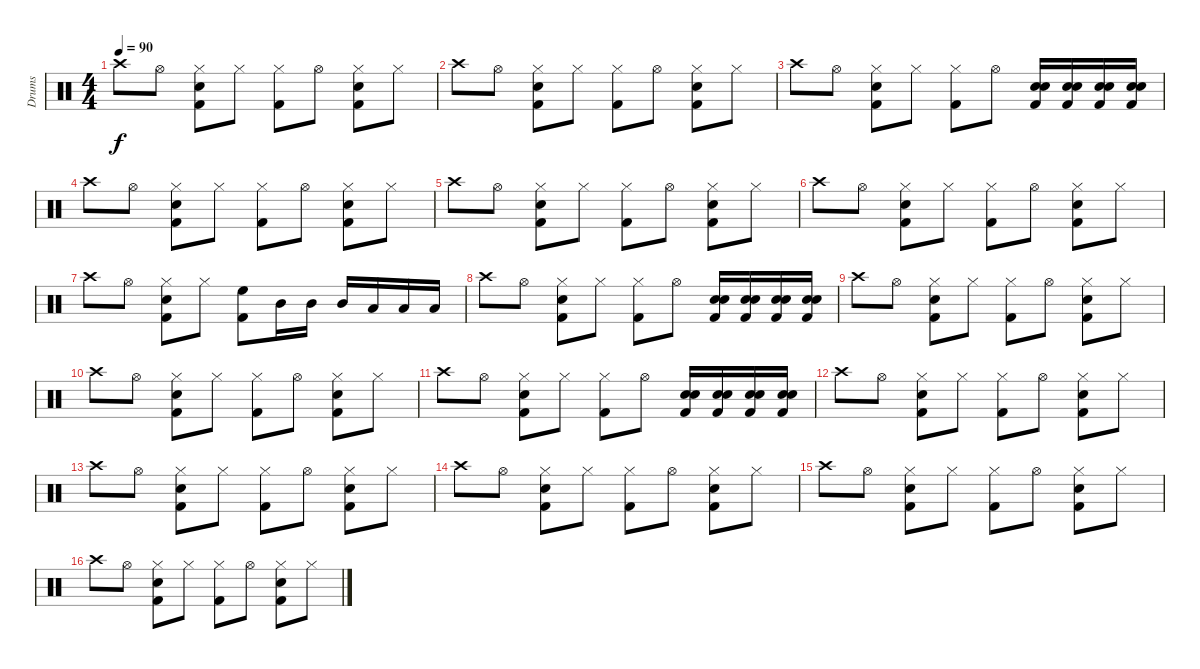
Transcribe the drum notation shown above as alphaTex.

\track ("Drums" "Drums") {instrument percussion}
\staff {score}
\articulation defaults
\ts (4 4)
\tempo 90
\clef neutral
\ks c "Crash high (hit)".8{dy f} "Hi-Hat (open)".8
("Kick (hit) 2" "Snare (hit) 2" "Hi-Hat (closed)").8 "Hi-Hat (closed)".8 ("Kick (hit) 2" "Hi-Hat (closed)").8 "Hi-Hat (open)".8 ("Kick (hit) 2" "Snare (hit) 2" "Hi-Hat (closed)").8 "Hi-Hat (closed)".8 |
"Crash high (hit)".8 "Hi-Hat (open)".8 ("Kick (hit) 2" "Snare (hit) 2" "Hi-Hat (closed)").8 "Hi-Hat (closed)".8 ("Kick (hit) 2" "Hi-Hat (closed)").8 "Hi-Hat (open)".8 ("Kick (hit) 2" "Snare (hit) 2" "Hi-Hat (closed)").8 "Hi-Hat (closed)".8 |
"Crash high (hit)".8 "Hi-Hat (open)".8 ("Kick (hit) 2" "Snare (hit) 2" "Hi-Hat (closed)").8 "Hi-Hat (closed)".8 ("Kick (hit) 2" "Hi-Hat (closed)").8 "Hi-Hat (open)".8 ("Snare (hit) 2" "Kick (hit) 2" "Snare (hit) 2").16 ("Snare (hit) 2" "Kick (hit) 2" "Snare (hit) 2").16 ("Snare (hit) 2" "Kick (hit) 2" "Snare (hit) 2").16 ("Snare (hit) 2" "Kick (hit) 2" "Snare (hit) 2").16 |
"Crash high (hit)".8 "Hi-Hat (open)".8 ("Kick (hit) 2" "Snare (hit) 2" "Hi-Hat (closed)").8 "Hi-Hat (closed)".8 ("Kick (hit) 2" "Hi-Hat (closed)").8 "Hi-Hat (open)".8 ("Kick (hit) 2" "Snare (hit) 2" "Hi-Hat (closed)").8 "Hi-Hat (closed)".8 |
"Crash high (hit)".8 "Hi-Hat (open)".8 ("Kick (hit) 2" "Snare (hit) 2" "Hi-Hat (closed)").8 "Hi-Hat (closed)".8 ("Kick (hit) 2" "Hi-Hat (closed)").8 "Hi-Hat (open)".8 ("Kick (hit) 2" "Snare (hit) 2" "Hi-Hat (closed)").8 "Hi-Hat (closed)".8 |
"Crash high (hit)".8 "Hi-Hat (open)".8 ("Kick (hit) 2" "Snare (hit) 2" "Hi-Hat (closed)").8 "Hi-Hat (closed)".8 ("Kick (hit) 2" "Hi-Hat (closed)").8 "Hi-Hat (open)".8 ("Kick (hit) 2" "Snare (hit) 2" "Hi-Hat (closed)").8 "Hi-Hat (closed)".8 |
"Crash high (hit)".8 "Hi-Hat (open)".8 ("Kick (hit) 2" "Snare (hit) 2" "Hi-Hat (closed)").8 "Hi-Hat (closed)".8 ("Kick (hit) 2" "High Floor Tom (hit)").8 "Mid Tom (hit)".16 "Mid Tom (hit)".16 "Mid Tom (hit)".16 "Low Tom (hit)".16 "Low Tom (hit)".16 "Low Tom (hit)".16 |
"Crash high (hit)".8 "Hi-Hat (open)".8 ("Kick (hit) 2" "Snare (hit) 2" "Hi-Hat (closed)").8 "Hi-Hat (closed)".8 ("Kick (hit) 2" "Hi-Hat (closed)").8 "Hi-Hat (open)".8 ("Snare (hit) 2" "Kick (hit) 2" "Snare (hit) 2").16 ("Snare (hit) 2" "Kick (hit) 2" "Snare (hit) 2").16 ("Snare (hit) 2" "Kick (hit) 2" "Snare (hit) 2").16 ("Snare (hit) 2" "Kick (hit) 2" "Snare (hit) 2").16 |
"Crash high (hit)".8 "Hi-Hat (open)".8 ("Kick (hit) 2" "Snare (hit) 2" "Hi-Hat (closed)").8 "Hi-Hat (closed)".8 ("Kick (hit) 2" "Hi-Hat (closed)").8 "Hi-Hat (open)".8 ("Kick (hit) 2" "Snare (hit) 2" "Hi-Hat (closed)").8 "Hi-Hat (closed)".8 |
"Crash high (hit)".8 "Hi-Hat (open)".8 ("Kick (hit) 2" "Snare (hit) 2" "Hi-Hat (closed)").8 "Hi-Hat (closed)".8 ("Kick (hit) 2" "Hi-Hat (closed)").8 "Hi-Hat (open)".8 ("Kick (hit) 2" "Snare (hit) 2" "Hi-Hat (closed)").8 "Hi-Hat (closed)".8 |
"Crash high (hit)".8 "Hi-Hat (open)".8 ("Kick (hit) 2" "Snare (hit) 2" "Hi-Hat (closed)").8 "Hi-Hat (closed)".8 ("Kick (hit) 2" "Hi-Hat (closed)").8 "Hi-Hat (open)".8 ("Snare (hit) 2" "Kick (hit) 2" "Snare (hit) 2").16 ("Snare (hit) 2" "Kick (hit) 2" "Snare (hit) 2").16 ("Snare (hit) 2" "Kick (hit) 2" "Snare (hit) 2").16 ("Snare (hit) 2" "Kick (hit) 2" "Snare (hit) 2").16 |
"Crash high (hit)".8 "Hi-Hat (open)".8 ("Kick (hit) 2" "Snare (hit) 2" "Hi-Hat (closed)").8 "Hi-Hat (closed)".8 ("Kick (hit) 2" "Hi-Hat (closed)").8 "Hi-Hat (open)".8 ("Kick (hit) 2" "Snare (hit) 2" "Hi-Hat (closed)").8 "Hi-Hat (closed)".8 |
"Crash high (hit)".8 "Hi-Hat (open)".8 ("Kick (hit) 2" "Snare (hit) 2" "Hi-Hat (closed)").8 "Hi-Hat (closed)".8 ("Kick (hit) 2" "Hi-Hat (closed)").8 "Hi-Hat (open)".8 ("Kick (hit) 2" "Snare (hit) 2" "Hi-Hat (closed)").8 "Hi-Hat (closed)".8 |
"Crash high (hit)".8 "Hi-Hat (open)".8 ("Kick (hit) 2" "Snare (hit) 2" "Hi-Hat (closed)").8 "Hi-Hat (closed)".8 ("Kick (hit) 2" "Hi-Hat (closed)").8 "Hi-Hat (open)".8 ("Kick (hit) 2" "Snare (hit) 2" "Hi-Hat (closed)").8 "Hi-Hat (closed)".8 |
"Crash high (hit)".8 "Hi-Hat (open)".8 ("Kick (hit) 2" "Snare (hit) 2" "Hi-Hat (closed)").8 "Hi-Hat (closed)".8 ("Kick (hit) 2" "Hi-Hat (closed)").8 "Hi-Hat (open)".8 ("Kick (hit) 2" "Snare (hit) 2" "Hi-Hat (closed)").8 "Hi-Hat (closed)".8 |
"Crash high (hit)".8 "Hi-Hat (open)".8 ("Kick (hit) 2" "Snare (hit) 2" "Hi-Hat (closed)").8 "Hi-Hat (closed)".8 ("Kick (hit) 2" "Hi-Hat (closed)").8 "Hi-Hat (open)".8 ("Kick (hit) 2" "Snare (hit) 2" "Hi-Hat (closed)").8 "Hi-Hat (closed)".8
